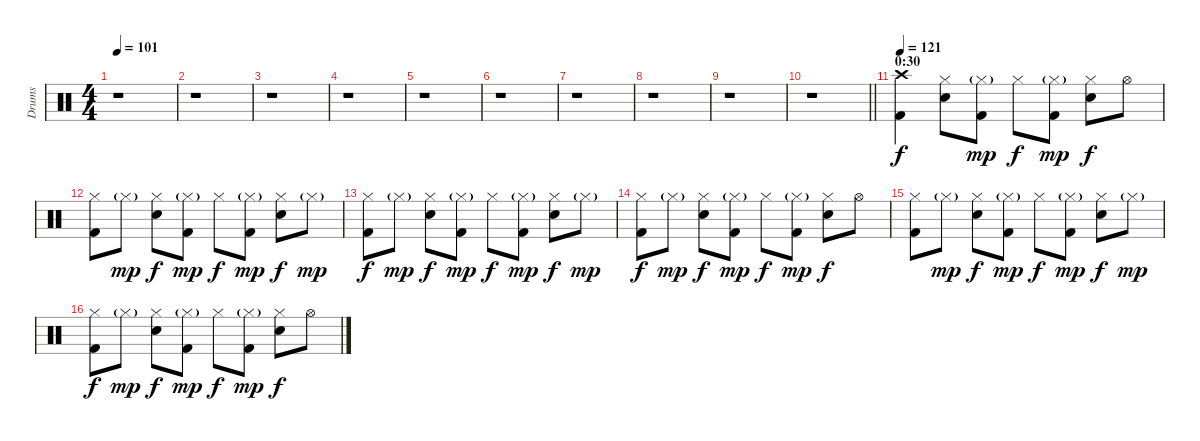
\track ("Drums" "Drums") {instrument percussion}
\staff {score}
\articulation defaults
\ts (4 4)
\tempo 101
\clef neutral
\ks c
r.1{dy f} |
r.1 |
r.1 |
r.1 |
r.1 |
r.1 |
r.1 |
r.1 |
r.1 |
\barLineRight lightlight
r.1 |
\section ("" "0:30")
\tempo 121
("Crash high (hit)" "Kick (hit) 2").4 ("Hi-Hat (closed)" "Snare (hit) 2").8 ("Hi-Hat (closed)"{g} "Kick (hit) 2").8{dy mp} "Hi-Hat (closed)".8{dy f} ("Hi-Hat (closed)"{g} "Kick (hit) 2").8{dy mp} ("Hi-Hat (closed)" "Snare (hit) 2").8{dy f} "Hi-Hat (open)".8 |
("Hi-Hat (closed)" "Kick (hit) 2").8 "Hi-Hat (closed)"{g}.8{dy mp} ("Hi-Hat (closed)" "Snare (hit) 2").8{dy f} ("Hi-Hat (closed)"{g} "Kick (hit) 2").8{dy mp} "Hi-Hat (closed)".8{dy f} ("Hi-Hat (closed)"{g} "Kick (hit) 2").8{dy mp} ("Hi-Hat (closed)" "Snare (hit) 2").8{dy f} "Hi-Hat (closed)"{g}.8{dy mp} |
("Hi-Hat (closed)" "Kick (hit) 2").8{dy f} "Hi-Hat (closed)"{g}.8{dy mp} ("Hi-Hat (closed)" "Snare (hit) 2").8{dy f} ("Hi-Hat (closed)"{g} "Kick (hit) 2").8{dy mp} "Hi-Hat (closed)".8{dy f} ("Hi-Hat (closed)"{g} "Kick (hit) 2").8{dy mp} ("Hi-Hat (closed)" "Snare (hit) 2").8{dy f} "Hi-Hat (closed)"{g}.8{dy mp} |
("Hi-Hat (closed)" "Kick (hit) 2").8{dy f} "Hi-Hat (closed)"{g}.8{dy mp} ("Hi-Hat (closed)" "Snare (hit) 2").8{dy f} ("Hi-Hat (closed)"{g} "Kick (hit) 2").8{dy mp} "Hi-Hat (closed)".8{dy f} ("Hi-Hat (closed)"{g} "Kick (hit) 2").8{dy mp} ("Hi-Hat (closed)" "Snare (hit) 2").8{dy f} "Hi-Hat (open)".8 |
("Hi-Hat (closed)" "Kick (hit) 2").8 "Hi-Hat (closed)"{g}.8{dy mp} ("Hi-Hat (closed)" "Snare (hit) 2").8{dy f} ("Hi-Hat (closed)"{g} "Kick (hit) 2").8{dy mp} "Hi-Hat (closed)".8{dy f} ("Hi-Hat (closed)"{g} "Kick (hit) 2").8{dy mp} ("Hi-Hat (closed)" "Snare (hit) 2").8{dy f} "Hi-Hat (closed)"{g}.8{dy mp} |
("Hi-Hat (closed)" "Kick (hit) 2").8{dy f} "Hi-Hat (closed)"{g}.8{dy mp} ("Hi-Hat (closed)" "Snare (hit) 2").8{dy f} ("Hi-Hat (closed)"{g} "Kick (hit) 2").8{dy mp} "Hi-Hat (closed)".8{dy f} ("Hi-Hat (closed)"{g} "Kick (hit) 2").8{dy mp} ("Hi-Hat (closed)" "Snare (hit) 2").8{dy f} "Hi-Hat (open)".8
